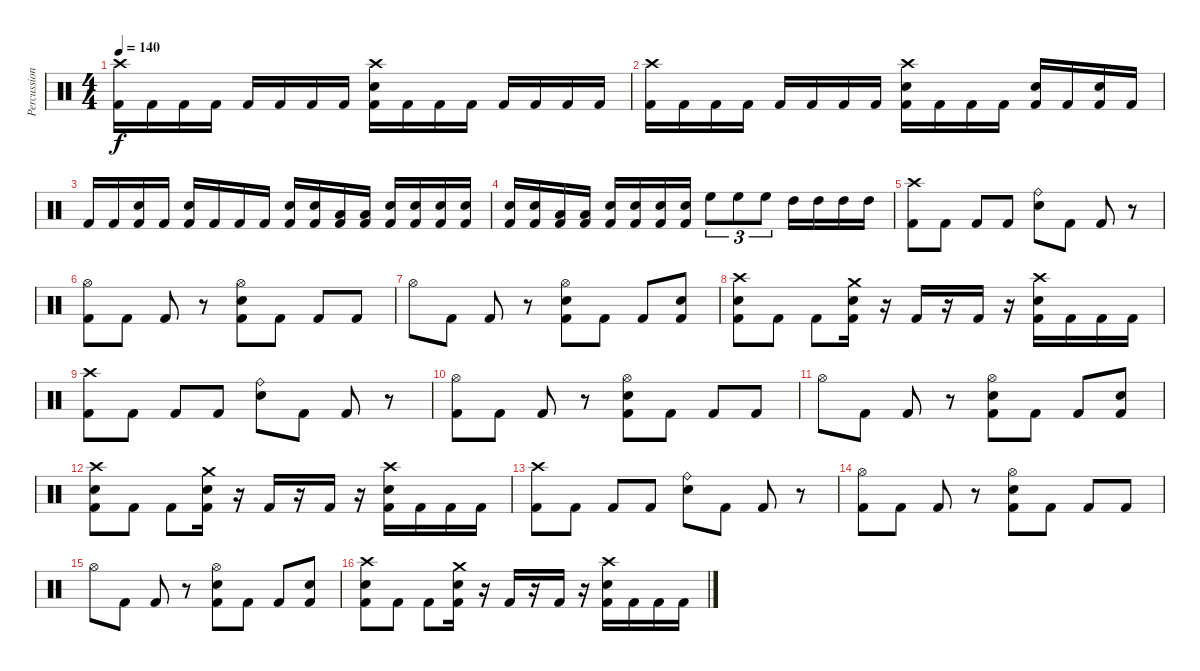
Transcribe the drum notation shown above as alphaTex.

\track ("Percussion" "Percussion") {instrument percussion}
\staff {score}
\articulation defaults
\ts (4 4)
\tempo 140
\clef neutral
\ks c
("Crash high (hit)" "Kick (hit) 2").16{dy f} "Kick (hit) 2".16 "Kick (hit) 2".16 "Kick (hit) 2".16 "Kick (hit) 2".16 "Kick (hit) 2".16 "Kick (hit) 2".16 "Kick (hit) 2".16 ("Crash high (hit)" "Snare (hit) 2" "Kick (hit) 2").16 "Kick (hit) 2".16 "Kick (hit) 2".16 "Kick (hit) 2".16 "Kick (hit) 2".16 "Kick (hit) 2".16 "Kick (hit) 2".16 "Kick (hit) 2".16 |
("Crash high (hit)" "Kick (hit) 2").16 "Kick (hit) 2".16 "Kick (hit) 2".16 "Kick (hit) 2".16 "Kick (hit) 2".16 "Kick (hit) 2".16 "Kick (hit) 2".16 "Kick (hit) 2".16 ("Crash high (hit)" "Snare (hit) 2" "Kick (hit) 2").16 "Kick (hit) 2".16 "Kick (hit) 2".16 "Kick (hit) 2".16 ("Snare (hit) 2" "Kick (hit) 2").16 "Kick (hit) 2".16 ("Snare (hit) 2" "Kick (hit) 2").16 "Kick (hit) 2".16 |
"Kick (hit) 2".16 "Kick (hit) 2".16 ("Snare (hit) 2" "Kick (hit) 2").16 "Kick (hit) 2".16 ("Snare (hit) 2" "Kick (hit) 2").16 "Kick (hit) 2".16 "Kick (hit) 2".16 "Kick (hit) 2".16 ("Snare (hit) 2" "Kick (hit) 2").16 ("Snare (hit) 2" "Kick (hit) 2").16 ("Low Tom (hit)" "Kick (hit) 2").16 ("Low Tom (hit)" "Kick (hit) 2").16 ("Snare (hit) 2" "Kick (hit) 2").16 ("Snare (hit) 2" "Kick (hit) 2").16 ("Snare (hit) 2" "Kick (hit) 2").16 ("Snare (hit) 2" "Kick (hit) 2").16 |
("Snare (hit) 2" "Kick (hit) 2").16 ("Snare (hit) 2" "Kick (hit) 2").16 ("Low Tom (hit)" "Kick (hit) 2").16 ("Low Tom (hit)" "Kick (hit) 2").16 ("Snare (hit) 2" "Kick (hit) 2").16 ("Snare (hit) 2" "Kick (hit) 2").16 ("Snare (hit) 2" "Kick (hit) 2").16 ("Snare (hit) 2" "Kick (hit) 2").16 "High Floor Tom (hit)".8{tu (3 2)} "High Floor Tom (hit)".8{tu (3 2)} "High Floor Tom (hit)".8{tu (3 2)} "High Tom (hit)".16 "High Tom (hit)".16 "High Tom (hit)".16 "High Tom (hit)".16 |
("Crash high (hit)" "Kick (hit) 2").8 "Kick (hit) 2".8 "Kick (hit) 2".8 "Kick (hit) 2".8 ("Ride (bell)" "Snare (hit) 2").8 "Kick (hit) 2".8 "Kick (hit) 2".8 r.8 |
("Hi-Hat (open)" "Kick (hit) 2").8 "Kick (hit) 2".8 "Kick (hit) 2".8 r.8 ("Hi-Hat (open)" "Snare (hit) 2" "Kick (hit) 2").8 "Kick (hit) 2".8 "Kick (hit) 2".8 "Kick (hit) 2".8 |
"Hi-Hat (open)".8 "Kick (hit) 2".8 "Kick (hit) 2".8 r.8 ("Hi-Hat (open)" "Snare (hit) 2" "Kick (hit) 2").8 "Kick (hit) 2".8 "Kick (hit) 2".8 ("Snare (hit) 2" "Kick (hit) 2").8 |
("Crash high (hit)" "Snare (hit) 2" "Kick (hit) 2").8 "Kick (hit) 2".8 "Kick (hit) 2".8 ("Crash medium (hit)" "Snare (hit) 2" "Kick (hit) 2").16 r.16 "Kick (hit) 2".16 r.16 "Kick (hit) 2".16 r.16 ("Crash high (hit)" "Snare (hit) 2" "Kick (hit) 2").16 "Kick (hit) 2".16 "Kick (hit) 2".16 "Kick (hit) 2".16 |
("Crash high (hit)" "Kick (hit) 2").8 "Kick (hit) 2".8 "Kick (hit) 2".8 "Kick (hit) 2".8 ("Ride (bell)" "Snare (hit) 2").8 "Kick (hit) 2".8 "Kick (hit) 2".8 r.8 |
("Hi-Hat (open)" "Kick (hit) 2").8 "Kick (hit) 2".8 "Kick (hit) 2".8 r.8 ("Hi-Hat (open)" "Snare (hit) 2" "Kick (hit) 2").8 "Kick (hit) 2".8 "Kick (hit) 2".8 "Kick (hit) 2".8 |
"Hi-Hat (open)".8 "Kick (hit) 2".8 "Kick (hit) 2".8 r.8 ("Hi-Hat (open)" "Snare (hit) 2" "Kick (hit) 2").8 "Kick (hit) 2".8 "Kick (hit) 2".8 ("Snare (hit) 2" "Kick (hit) 2").8 |
("Crash high (hit)" "Snare (hit) 2" "Kick (hit) 2").8 "Kick (hit) 2".8 "Kick (hit) 2".8 ("Crash medium (hit)" "Snare (hit) 2" "Kick (hit) 2").16 r.16 "Kick (hit) 2".16 r.16 "Kick (hit) 2".16 r.16 ("Crash high (hit)" "Snare (hit) 2" "Kick (hit) 2").16 "Kick (hit) 2".16 "Kick (hit) 2".16 "Kick (hit) 2".16 |
("Crash high (hit)" "Kick (hit) 2").8 "Kick (hit) 2".8 "Kick (hit) 2".8 "Kick (hit) 2".8 ("Ride (bell)" "Snare (hit) 2").8 "Kick (hit) 2".8 "Kick (hit) 2".8 r.8 |
("Hi-Hat (open)" "Kick (hit) 2").8 "Kick (hit) 2".8 "Kick (hit) 2".8 r.8 ("Hi-Hat (open)" "Snare (hit) 2" "Kick (hit) 2").8 "Kick (hit) 2".8 "Kick (hit) 2".8 "Kick (hit) 2".8 |
"Hi-Hat (open)".8 "Kick (hit) 2".8 "Kick (hit) 2".8 r.8 ("Hi-Hat (open)" "Snare (hit) 2" "Kick (hit) 2").8 "Kick (hit) 2".8 "Kick (hit) 2".8 ("Snare (hit) 2" "Kick (hit) 2").8 |
("Crash high (hit)" "Snare (hit) 2" "Kick (hit) 2").8 "Kick (hit) 2".8 "Kick (hit) 2".8 ("Crash medium (hit)" "Snare (hit) 2" "Kick (hit) 2").16 r.16 "Kick (hit) 2".16 r.16 "Kick (hit) 2".16 r.16 ("Crash high (hit)" "Snare (hit) 2" "Kick (hit) 2").16 "Kick (hit) 2".16 "Kick (hit) 2".16 "Kick (hit) 2".16
